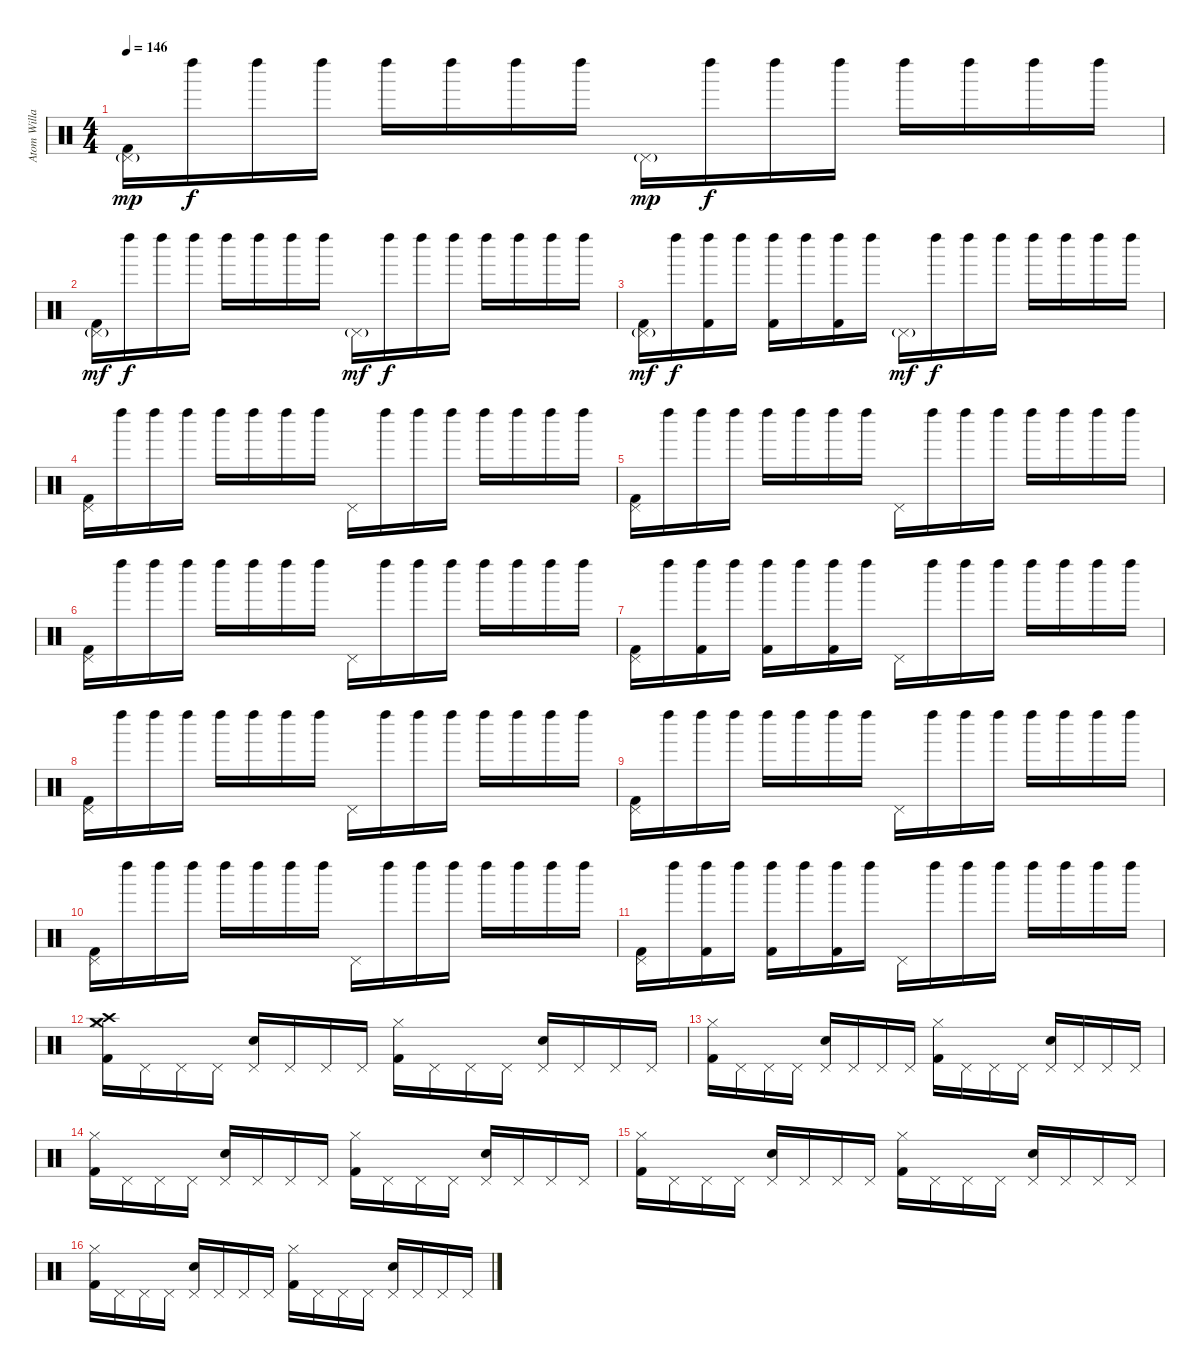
\track ("Atom Willard" "Atom Willa") {instrument percussion}
\staff {score}
\articulation defaults
\ts (4 4)
\tempo 146
\clef neutral
\ks c
("Pedal Hi-Hat (hit)"{g} "Kick (hit) 2").16{dy mp} "Left Maraca (hit)".16{dy f} "Left Maraca (hit)".16 "Left Maraca (hit)".16 "Left Maraca (hit)".16 "Left Maraca (hit)".16 "Left Maraca (hit)".16 "Left Maraca (hit)".16 "Pedal Hi-Hat (hit)"{g}.16{dy mp} "Left Maraca (hit)".16{dy f} "Left Maraca (hit)".16 "Left Maraca (hit)".16 "Left Maraca (hit)".16 "Left Maraca (hit)".16 "Left Maraca (hit)".16 "Left Maraca (hit)".16 |
("Pedal Hi-Hat (hit)"{g} "Kick (hit) 2").16{dy mf} "Left Maraca (hit)".16{dy f} "Left Maraca (hit)".16 "Left Maraca (hit)".16 "Left Maraca (hit)".16 "Left Maraca (hit)".16 "Left Maraca (hit)".16 "Left Maraca (hit)".16 "Pedal Hi-Hat (hit)"{g}.16{dy mf} "Left Maraca (hit)".16{dy f} "Left Maraca (hit)".16 "Left Maraca (hit)".16 "Left Maraca (hit)".16 "Left Maraca (hit)".16 "Left Maraca (hit)".16 "Left Maraca (hit)".16 |
("Pedal Hi-Hat (hit)"{g} "Kick (hit) 2").16{dy mf} "Left Maraca (hit)".16{dy f} ("Left Maraca (hit)" "Kick (hit) 2").16 "Left Maraca (hit)".16 ("Left Maraca (hit)" "Kick (hit) 2").16 "Left Maraca (hit)".16 ("Left Maraca (hit)" "Kick (hit) 2").16 "Left Maraca (hit)".16 "Pedal Hi-Hat (hit)"{g}.16{dy mf} "Left Maraca (hit)".16{dy f} "Left Maraca (hit)".16 "Left Maraca (hit)".16 "Left Maraca (hit)".16 "Left Maraca (hit)".16 "Left Maraca (hit)".16 "Left Maraca (hit)".16 |
("Pedal Hi-Hat (hit)" "Kick (hit) 2").16 "Left Maraca (hit)".16 "Left Maraca (hit)".16 "Left Maraca (hit)".16 "Left Maraca (hit)".16 "Left Maraca (hit)".16 "Left Maraca (hit)".16 "Left Maraca (hit)".16 "Pedal Hi-Hat (hit)".16 "Left Maraca (hit)".16 "Left Maraca (hit)".16 "Left Maraca (hit)".16 "Left Maraca (hit)".16 "Left Maraca (hit)".16 "Left Maraca (hit)".16 "Left Maraca (hit)".16 |
("Pedal Hi-Hat (hit)" "Kick (hit) 2").16 "Left Maraca (hit)".16 "Left Maraca (hit)".16 "Left Maraca (hit)".16 "Left Maraca (hit)".16 "Left Maraca (hit)".16 "Left Maraca (hit)".16 "Left Maraca (hit)".16 "Pedal Hi-Hat (hit)".16 "Left Maraca (hit)".16 "Left Maraca (hit)".16 "Left Maraca (hit)".16 "Left Maraca (hit)".16 "Left Maraca (hit)".16 "Left Maraca (hit)".16 "Left Maraca (hit)".16 |
("Pedal Hi-Hat (hit)" "Kick (hit) 2").16 "Left Maraca (hit)".16 "Left Maraca (hit)".16 "Left Maraca (hit)".16 "Left Maraca (hit)".16 "Left Maraca (hit)".16 "Left Maraca (hit)".16 "Left Maraca (hit)".16 "Pedal Hi-Hat (hit)".16 "Left Maraca (hit)".16 "Left Maraca (hit)".16 "Left Maraca (hit)".16 "Left Maraca (hit)".16 "Left Maraca (hit)".16 "Left Maraca (hit)".16 "Left Maraca (hit)".16 |
("Pedal Hi-Hat (hit)" "Kick (hit) 2").16 "Left Maraca (hit)".16 ("Left Maraca (hit)" "Kick (hit) 2").16 "Left Maraca (hit)".16 ("Left Maraca (hit)" "Kick (hit) 2").16 "Left Maraca (hit)".16 ("Left Maraca (hit)" "Kick (hit) 2").16 "Left Maraca (hit)".16 "Pedal Hi-Hat (hit)".16 "Left Maraca (hit)".16 "Left Maraca (hit)".16 "Left Maraca (hit)".16 "Left Maraca (hit)".16 "Left Maraca (hit)".16 "Left Maraca (hit)".16 "Left Maraca (hit)".16 |
("Pedal Hi-Hat (hit)" "Kick (hit) 2").16 "Left Maraca (hit)".16 "Left Maraca (hit)".16 "Left Maraca (hit)".16 "Left Maraca (hit)".16 "Left Maraca (hit)".16 "Left Maraca (hit)".16 "Left Maraca (hit)".16 "Pedal Hi-Hat (hit)".16 "Left Maraca (hit)".16 "Left Maraca (hit)".16 "Left Maraca (hit)".16 "Left Maraca (hit)".16 "Left Maraca (hit)".16 "Left Maraca (hit)".16 "Left Maraca (hit)".16 |
("Pedal Hi-Hat (hit)" "Kick (hit) 2").16 "Left Maraca (hit)".16 "Left Maraca (hit)".16 "Left Maraca (hit)".16 "Left Maraca (hit)".16 "Left Maraca (hit)".16 "Left Maraca (hit)".16 "Left Maraca (hit)".16 "Pedal Hi-Hat (hit)".16 "Left Maraca (hit)".16 "Left Maraca (hit)".16 "Left Maraca (hit)".16 "Left Maraca (hit)".16 "Left Maraca (hit)".16 "Left Maraca (hit)".16 "Left Maraca (hit)".16 |
("Pedal Hi-Hat (hit)" "Kick (hit) 2").16 "Left Maraca (hit)".16 "Left Maraca (hit)".16 "Left Maraca (hit)".16 "Left Maraca (hit)".16 "Left Maraca (hit)".16 "Left Maraca (hit)".16 "Left Maraca (hit)".16 "Pedal Hi-Hat (hit)".16 "Left Maraca (hit)".16 "Left Maraca (hit)".16 "Left Maraca (hit)".16 "Left Maraca (hit)".16 "Left Maraca (hit)".16 "Left Maraca (hit)".16 "Left Maraca (hit)".16 |
("Pedal Hi-Hat (hit)" "Kick (hit) 2").16 "Left Maraca (hit)".16 ("Left Maraca (hit)" "Kick (hit) 2").16 "Left Maraca (hit)".16 ("Left Maraca (hit)" "Kick (hit) 2").16 "Left Maraca (hit)".16 ("Left Maraca (hit)" "Kick (hit) 2").16 "Left Maraca (hit)".16 "Pedal Hi-Hat (hit)".16 "Left Maraca (hit)".16 "Left Maraca (hit)".16 "Left Maraca (hit)".16 "Left Maraca (hit)".16 "Left Maraca (hit)".16 "Left Maraca (hit)".16 "Left Maraca (hit)".16 |
("Crash medium (hit)" "Crash high (hit)" "Hi-Hat (closed)" "Kick (hit) 2").16 "Pedal Hi-Hat (hit)".16 "Pedal Hi-Hat (hit)".16 "Pedal Hi-Hat (hit)".16 ("Pedal Hi-Hat (hit)" "Electric Snare (hit)").16 "Pedal Hi-Hat (hit)".16 "Pedal Hi-Hat (hit)".16 "Pedal Hi-Hat (hit)".16 ("Hi-Hat (closed)" "Kick (hit) 2").16 "Pedal Hi-Hat (hit)".16 "Pedal Hi-Hat (hit)".16 "Pedal Hi-Hat (hit)".16 ("Pedal Hi-Hat (hit)" "Electric Snare (hit)").16 "Pedal Hi-Hat (hit)".16 "Pedal Hi-Hat (hit)".16 "Pedal Hi-Hat (hit)".16 |
("Hi-Hat (closed)" "Kick (hit) 2").16 "Pedal Hi-Hat (hit)".16 "Pedal Hi-Hat (hit)".16 "Pedal Hi-Hat (hit)".16 ("Pedal Hi-Hat (hit)" "Electric Snare (hit)").16 "Pedal Hi-Hat (hit)".16 "Pedal Hi-Hat (hit)".16 "Pedal Hi-Hat (hit)".16 ("Hi-Hat (closed)" "Kick (hit) 2").16 "Pedal Hi-Hat (hit)".16 "Pedal Hi-Hat (hit)".16 "Pedal Hi-Hat (hit)".16 ("Pedal Hi-Hat (hit)" "Electric Snare (hit)").16 "Pedal Hi-Hat (hit)".16 "Pedal Hi-Hat (hit)".16 "Pedal Hi-Hat (hit)".16 |
("Hi-Hat (closed)" "Kick (hit) 2").16 "Pedal Hi-Hat (hit)".16 "Pedal Hi-Hat (hit)".16 "Pedal Hi-Hat (hit)".16 ("Pedal Hi-Hat (hit)" "Electric Snare (hit)").16 "Pedal Hi-Hat (hit)".16 "Pedal Hi-Hat (hit)".16 "Pedal Hi-Hat (hit)".16 ("Hi-Hat (closed)" "Kick (hit) 2").16 "Pedal Hi-Hat (hit)".16 "Pedal Hi-Hat (hit)".16 "Pedal Hi-Hat (hit)".16 ("Pedal Hi-Hat (hit)" "Electric Snare (hit)").16 "Pedal Hi-Hat (hit)".16 "Pedal Hi-Hat (hit)".16 "Pedal Hi-Hat (hit)".16 |
("Hi-Hat (closed)" "Kick (hit) 2").16 "Pedal Hi-Hat (hit)".16 "Pedal Hi-Hat (hit)".16 "Pedal Hi-Hat (hit)".16 ("Pedal Hi-Hat (hit)" "Electric Snare (hit)").16 "Pedal Hi-Hat (hit)".16 "Pedal Hi-Hat (hit)".16 "Pedal Hi-Hat (hit)".16 ("Hi-Hat (closed)" "Kick (hit) 2").16 "Pedal Hi-Hat (hit)".16 "Pedal Hi-Hat (hit)".16 "Pedal Hi-Hat (hit)".16 ("Pedal Hi-Hat (hit)" "Electric Snare (hit)").16 "Pedal Hi-Hat (hit)".16 "Pedal Hi-Hat (hit)".16 "Pedal Hi-Hat (hit)".16 |
("Hi-Hat (closed)" "Kick (hit) 2").16 "Pedal Hi-Hat (hit)".16 "Pedal Hi-Hat (hit)".16 "Pedal Hi-Hat (hit)".16 ("Pedal Hi-Hat (hit)" "Electric Snare (hit)").16 "Pedal Hi-Hat (hit)".16 "Pedal Hi-Hat (hit)".16 "Pedal Hi-Hat (hit)".16 ("Hi-Hat (closed)" "Kick (hit) 2").16 "Pedal Hi-Hat (hit)".16 "Pedal Hi-Hat (hit)".16 "Pedal Hi-Hat (hit)".16 ("Pedal Hi-Hat (hit)" "Electric Snare (hit)").16 "Pedal Hi-Hat (hit)".16 "Pedal Hi-Hat (hit)".16 "Pedal Hi-Hat (hit)".16
